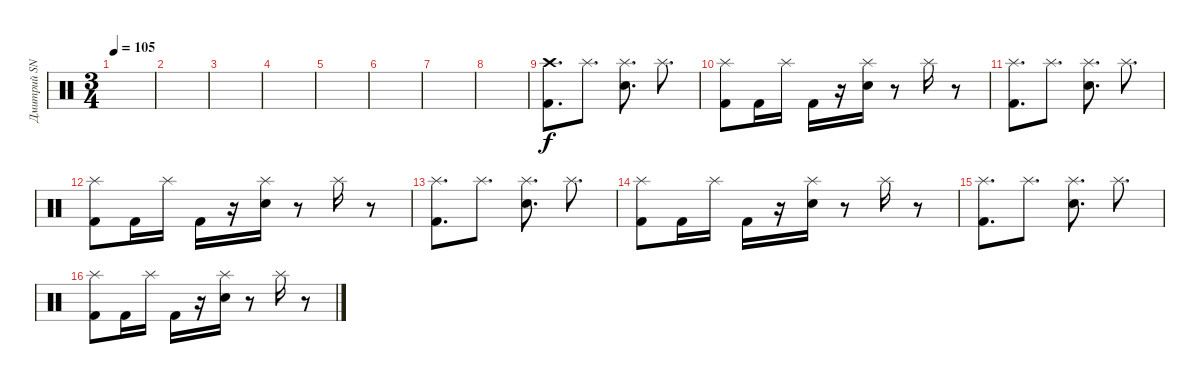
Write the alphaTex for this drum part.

\track ("Дмитрий SNAKE Хакимов" "Дмитрий SN") {instrument percussion}
\staff {score}
\articulation defaults
\ts (3 4)
\tempo 105
\clef neutral
\ks c
|
|
|
|
|
|
|
|
("Crash high (hit)" "Kick (hit) 2").8{d} "Splash (hit)".8{d} ("Splash (hit)" "Snare (hit) 2").8{d} "Splash (hit)".8{d} |
("Splash (hit)" "Kick (hit) 2").8 "Kick (hit) 2".16 "Splash (hit)".16 "Kick (hit) 2".16 r.16 ("Splash (hit)" "Snare (hit) 2").16 r.8 "Splash (hit)".16 r.8 |
("Splash (hit)" "Kick (hit) 2").8{d} "Splash (hit)".8{d} ("Splash (hit)" "Snare (hit) 2").8{d} "Splash (hit)".8{d} |
("Splash (hit)" "Kick (hit) 2").8 "Kick (hit) 2".16 "Splash (hit)".16 "Kick (hit) 2".16 r.16 ("Splash (hit)" "Snare (hit) 2").16 r.8 "Splash (hit)".16 r.8 |
("Splash (hit)" "Kick (hit) 2").8{d} "Splash (hit)".8{d} ("Splash (hit)" "Snare (hit) 2").8{d} "Splash (hit)".8{d} |
("Splash (hit)" "Kick (hit) 2").8 "Kick (hit) 2".16 "Splash (hit)".16 "Kick (hit) 2".16 r.16 ("Splash (hit)" "Snare (hit) 2").16 r.8 "Splash (hit)".16 r.8 |
("Splash (hit)" "Kick (hit) 2").8{d} "Splash (hit)".8{d} ("Splash (hit)" "Snare (hit) 2").8{d} "Splash (hit)".8{d} |
("Splash (hit)" "Kick (hit) 2").8 "Kick (hit) 2".16 "Splash (hit)".16 "Kick (hit) 2".16 r.16 ("Splash (hit)" "Snare (hit) 2").16 r.8 "Splash (hit)".16 r.8
